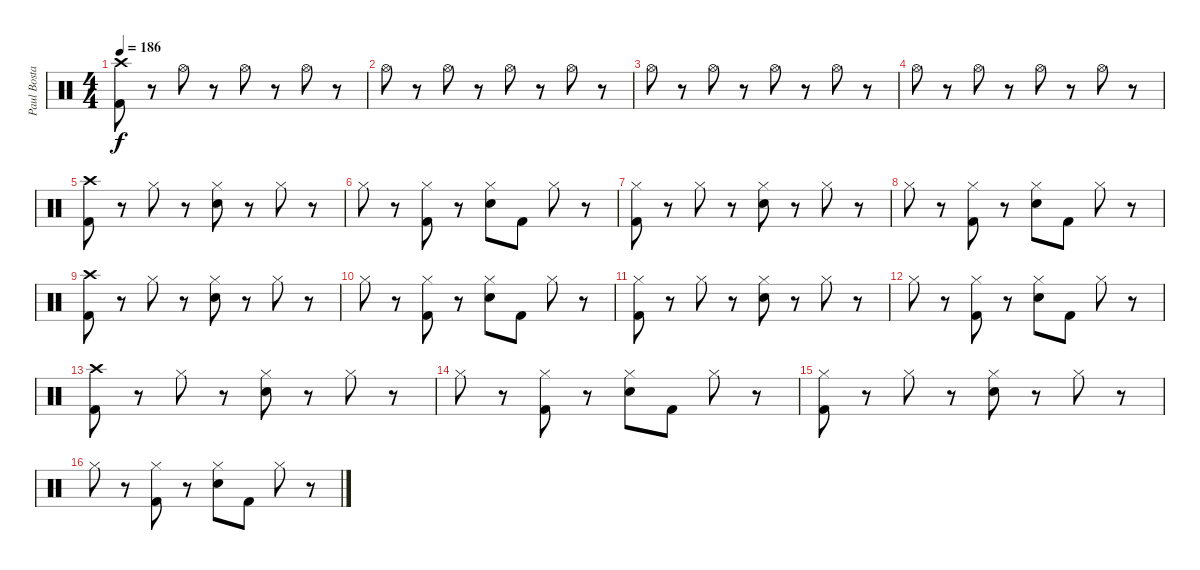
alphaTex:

\track ("Paul Bostaph" "Paul Bosta") {instrument percussion}
\staff {score}
\articulation defaults
\ts (4 4)
\tempo 186
\clef neutral
\ks c
("Crash high (hit)" "Kick (hit) 2").8{dy f} r.8 "Hi-Hat (open)".8 r.8 "Hi-Hat (open)".8 r.8 "Hi-Hat (open)".8 r.8 |
"Hi-Hat (open)".8 r.8 "Hi-Hat (open)".8 r.8 "Hi-Hat (open)".8 r.8 "Hi-Hat (open)".8 r.8 |
"Hi-Hat (open)".8 r.8 "Hi-Hat (open)".8 r.8 "Hi-Hat (open)".8 r.8 "Hi-Hat (open)".8 r.8 |
"Hi-Hat (open)".8 r.8 "Hi-Hat (open)".8 r.8 "Hi-Hat (open)".8 r.8 "Hi-Hat (open)".8 r.8 |
("Crash high (hit)" "Kick (hit) 2").8 r.8 "Hi-Hat (closed)".8 r.8 ("Hi-Hat (closed)" "Electric Snare (hit)").8 r.8 "Hi-Hat (closed)".8 r.8 |
"Hi-Hat (closed)".8 r.8 ("Hi-Hat (closed)" "Kick (hit) 2").8 r.8 ("Hi-Hat (closed)" "Electric Snare (hit)").8 "Kick (hit) 2".8 "Hi-Hat (closed)".8 r.8 |
("Hi-Hat (closed)" "Kick (hit) 2").8 r.8 "Hi-Hat (closed)".8 r.8 ("Hi-Hat (closed)" "Electric Snare (hit)").8 r.8 "Hi-Hat (closed)".8 r.8 |
"Hi-Hat (closed)".8 r.8 ("Hi-Hat (closed)" "Kick (hit) 2").8 r.8 ("Hi-Hat (closed)" "Electric Snare (hit)").8 "Kick (hit) 2".8 "Hi-Hat (closed)".8 r.8 |
("Crash high (hit)" "Kick (hit) 2").8 r.8 "Hi-Hat (closed)".8 r.8 ("Hi-Hat (closed)" "Electric Snare (hit)").8 r.8 "Hi-Hat (closed)".8 r.8 |
"Hi-Hat (closed)".8 r.8 ("Hi-Hat (closed)" "Kick (hit) 2").8 r.8 ("Hi-Hat (closed)" "Electric Snare (hit)").8 "Kick (hit) 2".8 "Hi-Hat (closed)".8 r.8 |
("Hi-Hat (closed)" "Kick (hit) 2").8 r.8 "Hi-Hat (closed)".8 r.8 ("Hi-Hat (closed)" "Electric Snare (hit)").8 r.8 "Hi-Hat (closed)".8 r.8 |
"Hi-Hat (closed)".8 r.8 ("Hi-Hat (closed)" "Kick (hit) 2").8 r.8 ("Hi-Hat (closed)" "Electric Snare (hit)").8 "Kick (hit) 2".8 "Hi-Hat (closed)".8 r.8 |
("Crash high (hit)" "Kick (hit) 2").8 r.8 "Hi-Hat (closed)".8 r.8 ("Hi-Hat (closed)" "Electric Snare (hit)").8 r.8 "Hi-Hat (closed)".8 r.8 |
"Hi-Hat (closed)".8 r.8 ("Hi-Hat (closed)" "Kick (hit) 2").8 r.8 ("Hi-Hat (closed)" "Electric Snare (hit)").8 "Kick (hit) 2".8 "Hi-Hat (closed)".8 r.8 |
("Hi-Hat (closed)" "Kick (hit) 2").8 r.8 "Hi-Hat (closed)".8 r.8 ("Hi-Hat (closed)" "Electric Snare (hit)").8 r.8 "Hi-Hat (closed)".8 r.8 |
"Hi-Hat (closed)".8 r.8 ("Hi-Hat (closed)" "Kick (hit) 2").8 r.8 ("Hi-Hat (closed)" "Electric Snare (hit)").8 "Kick (hit) 2".8 "Hi-Hat (closed)".8 r.8
